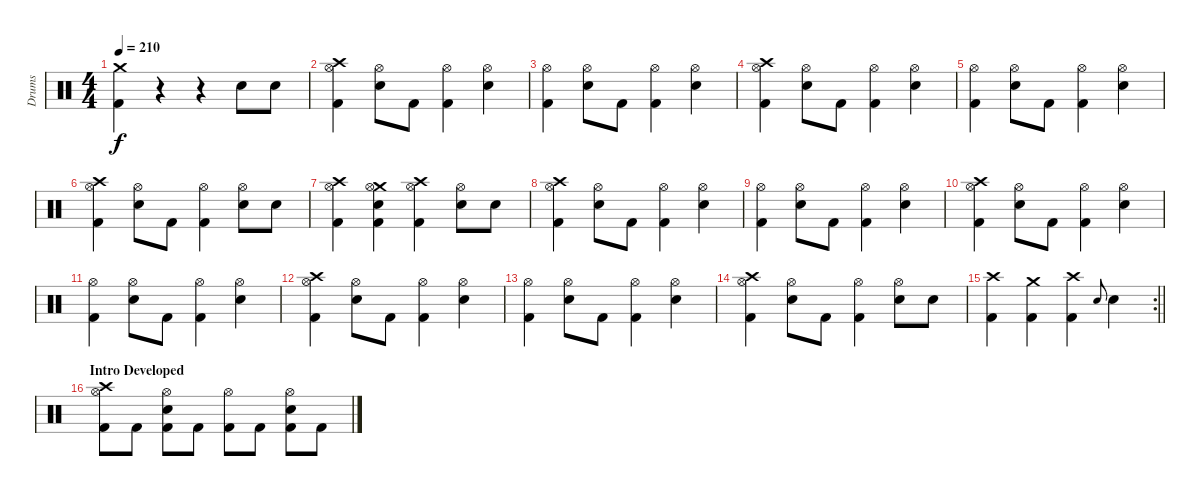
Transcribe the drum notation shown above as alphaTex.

\track ("Drums" "Drums") {instrument percussion}
\staff {score}
\articulation defaults
\ts (4 4)
\tempo 210
\clef neutral
\ks c
("Crash medium (hit)" "Kick (hit) 2").4{dy f} r.4 r.4 "Snare (hit) 2".8 "Snare (hit) 2".8 |
("Crash high (hit)" "Hi-Hat (open)" "Kick (hit) 2").4 ("Hi-Hat (open)" "Snare (hit) 2").8 "Kick (hit) 2".8 ("Hi-Hat (open)" "Kick (hit) 2").4 ("Hi-Hat (open)" "Snare (hit) 2").4 |
("Hi-Hat (open)" "Kick (hit) 2").4 ("Hi-Hat (open)" "Snare (hit) 2").8 "Kick (hit) 2".8 ("Hi-Hat (open)" "Kick (hit) 2").4 ("Hi-Hat (open)" "Snare (hit) 2").4 |
("Crash high (hit)" "Hi-Hat (open)" "Kick (hit) 2").4 ("Hi-Hat (open)" "Snare (hit) 2").8 "Kick (hit) 2".8 ("Hi-Hat (open)" "Kick (hit) 2").4 ("Hi-Hat (open)" "Snare (hit) 2").4 |
("Hi-Hat (open)" "Kick (hit) 2").4 ("Hi-Hat (open)" "Snare (hit) 2").8 "Kick (hit) 2".8 ("Hi-Hat (open)" "Kick (hit) 2").4 ("Hi-Hat (open)" "Snare (hit) 2").4 |
("Crash high (hit)" "Hi-Hat (open)" "Kick (hit) 2").4 ("Hi-Hat (open)" "Snare (hit) 2").8 "Kick (hit) 2".8 ("Hi-Hat (open)" "Kick (hit) 2").4 ("Hi-Hat (open)" "Snare (hit) 2").8 "Snare (hit) 2".8 |
("Crash high (hit)" "Hi-Hat (open)" "Kick (hit) 2").4 ("Crash medium (hit)" "Hi-Hat (open)" "Snare (hit) 2" "Kick (hit) 2").4 ("Crash high (hit)" "Hi-Hat (open)" "Kick (hit) 2").4 ("Hi-Hat (open)" "Snare (hit) 2").8 "Snare (hit) 2".8 |
("Crash high (hit)" "Hi-Hat (open)" "Kick (hit) 2").4 ("Hi-Hat (open)" "Snare (hit) 2").8 "Kick (hit) 2".8 ("Hi-Hat (open)" "Kick (hit) 2").4 ("Hi-Hat (open)" "Snare (hit) 2").4 |
("Hi-Hat (open)" "Kick (hit) 2").4 ("Hi-Hat (open)" "Snare (hit) 2").8 "Kick (hit) 2".8 ("Hi-Hat (open)" "Kick (hit) 2").4 ("Hi-Hat (open)" "Snare (hit) 2").4 |
("Crash high (hit)" "Hi-Hat (open)" "Kick (hit) 2").4 ("Hi-Hat (open)" "Snare (hit) 2").8 "Kick (hit) 2".8 ("Hi-Hat (open)" "Kick (hit) 2").4 ("Hi-Hat (open)" "Snare (hit) 2").4 |
("Hi-Hat (open)" "Kick (hit) 2").4 ("Hi-Hat (open)" "Snare (hit) 2").8 "Kick (hit) 2".8 ("Hi-Hat (open)" "Kick (hit) 2").4 ("Hi-Hat (open)" "Snare (hit) 2").4 |
("Crash high (hit)" "Hi-Hat (open)" "Kick (hit) 2").4 ("Hi-Hat (open)" "Snare (hit) 2").8 "Kick (hit) 2".8 ("Hi-Hat (open)" "Kick (hit) 2").4 ("Hi-Hat (open)" "Snare (hit) 2").4 |
("Hi-Hat (open)" "Kick (hit) 2").4 ("Hi-Hat (open)" "Snare (hit) 2").8 "Kick (hit) 2".8 ("Hi-Hat (open)" "Kick (hit) 2").4 ("Hi-Hat (open)" "Snare (hit) 2").4 |
("Crash high (hit)" "Hi-Hat (open)" "Kick (hit) 2").4 ("Hi-Hat (open)" "Snare (hit) 2").8 "Kick (hit) 2".8 ("Hi-Hat (open)" "Kick (hit) 2").4 ("Hi-Hat (open)" "Snare (hit) 2").8 "Snare (hit) 2".8 |
\rc 2
\barLineRight lightlight
("Crash high (hit)" "Kick (hit) 2").4 ("Crash medium (hit)" "Kick (hit) 2").4 ("Crash high (hit)" "Kick (hit) 2").4 "Snare (hit) 2".8{gr onbeat} "Snare (hit) 2".4 |
\section ("" "Intro Developed")
("Crash high (hit)" "Hi-Hat (open)" "Kick (hit) 2").8 "Kick (hit) 2".8 ("Hi-Hat (open)" "Snare (hit) 2" "Kick (hit) 2").8 "Kick (hit) 2".8 ("Hi-Hat (open)" "Kick (hit) 2").8 "Kick (hit) 2".8 ("Hi-Hat (open)" "Snare (hit) 2" "Kick (hit) 2").8 "Kick (hit) 2".8
